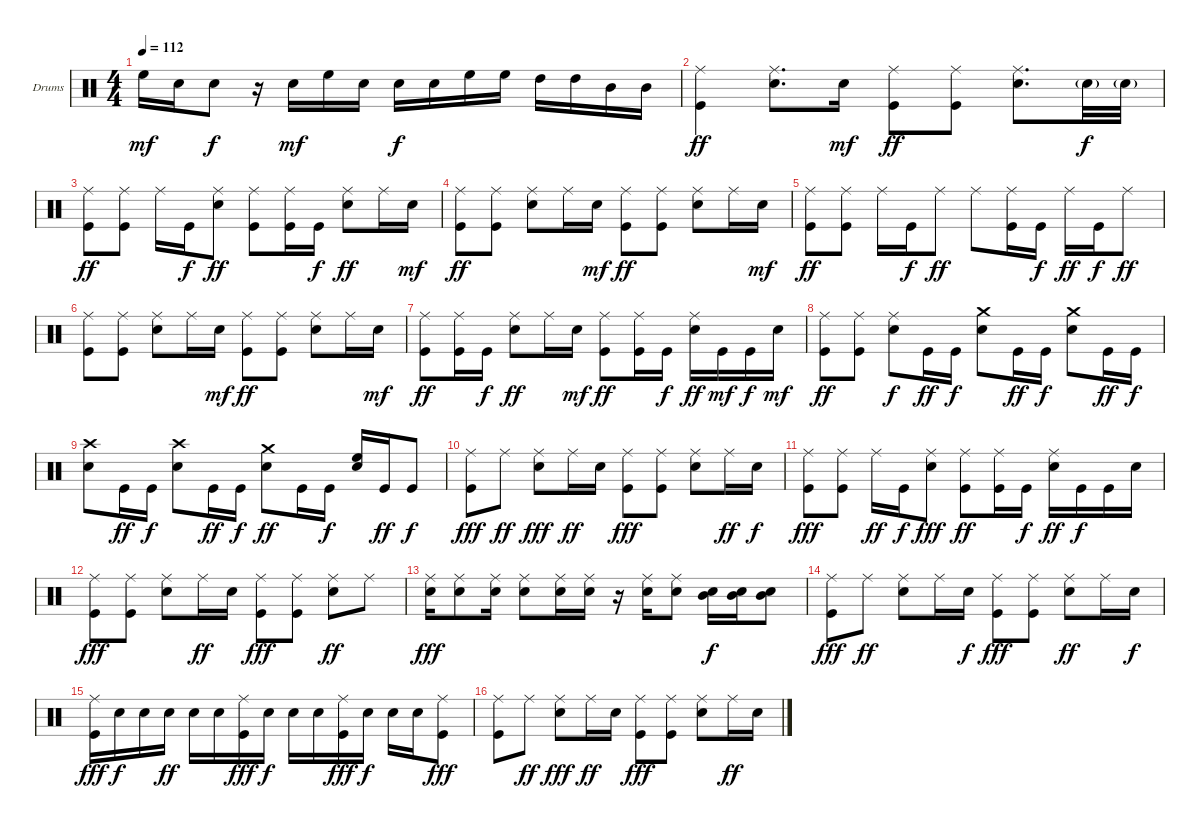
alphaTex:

\bracketExtendMode groupsimilarinstruments
\firstSystemTrackNameOrientation horizontal
\otherSystemsTrackNameOrientation horizontal
\track ("Drumkit" "Drums") {instrument percussion}
\staff {score}
\articulation defaults
\ts (4 4)
\tempo 112
\clef neutral
\ks c "High Floor Tom (hit)".16{dy mf} "Snare (hit) 2".16 "Snare (hit) 2".8{dy f}
r.16 "Snare (hit) 2".16{dy mf} "High Floor Tom (hit)".16 "Snare (hit) 2".16 "Snare (hit) 2".16{dy f} "Snare (hit) 2".16 "High Floor Tom (hit)".16 "High Floor Tom (hit)".16 "High Tom (hit)".16 "High Tom (hit)".16 "Mid Tom (hit)".16 "Mid Tom (hit)".16 |
("Ride (middle)" "Kick (hit)").4{dy ff} ("Ride (middle)" "Snare (hit) 2").8{d} "Snare (hit) 2".16{dy mf} ("Ride (middle)" "Kick (hit)").8{dy ff} ("Ride (middle)" "Kick (hit)").8 ("Ride (middle)" "Snare (hit) 2").8{d} "Snare (hit) 2"{g}.32{dy f} "Snare (hit) 2"{g}.32 |
("Ride (middle)" "Kick (hit)").8{dy ff} ("Ride (middle)" "Kick (hit)").8 "Ride (middle)".16 "Kick (hit)".16{dy f} ("Ride (middle)" "Snare (hit) 2").8{dy ff} ("Ride (middle)" "Kick (hit)").8 ("Ride (middle)" "Kick (hit)").16 "Kick (hit)".16{dy f} ("Ride (middle)" "Snare (hit) 2").8{dy ff} "Ride (middle)".16 "Snare (hit) 2".16{dy mf} |
("Ride (middle)" "Kick (hit)").8{dy ff} ("Ride (middle)" "Kick (hit)").8 ("Ride (middle)" "Snare (hit) 2").8 "Ride (middle)".16 "Snare (hit) 2".16{dy mf} ("Ride (middle)" "Kick (hit)").8{dy ff} ("Ride (middle)" "Kick (hit)").8 ("Ride (middle)" "Snare (hit) 2").8 "Ride (middle)".16 "Snare (hit) 2".16{dy mf} |
("Ride (middle)" "Kick (hit)").8{dy ff} ("Ride (middle)" "Kick (hit)").8 "Ride (middle)".16 "Kick (hit)".16{dy f} "Ride (middle)".8{dy ff} "Ride (middle)".8 ("Ride (middle)" "Kick (hit)").16 "Kick (hit)".16{dy f} "Ride (middle)".16{dy ff} "Kick (hit)".16{dy f} "Ride (middle)".8{dy ff} |
("Ride (middle)" "Kick (hit)").8 ("Ride (middle)" "Kick (hit)").8 ("Ride (middle)" "Snare (hit) 2").8 "Ride (middle)".16 "Snare (hit) 2".16{dy mf} ("Ride (middle)" "Kick (hit)").8{dy ff} ("Ride (middle)" "Kick (hit)").8 ("Ride (middle)" "Snare (hit) 2").8 "Ride (middle)".16 "Snare (hit) 2".16{dy mf} |
("Ride (middle)" "Kick (hit)").8{dy ff} ("Ride (middle)" "Kick (hit)").16 "Kick (hit)".16{dy f} ("Ride (middle)" "Snare (hit) 2").8{dy ff} "Ride (middle)".16 "Snare (hit) 2".16{dy mf} ("Ride (middle)" "Kick (hit)").8{dy ff} ("Ride (middle)" "Kick (hit)").16 "Kick (hit)".16{dy f} ("Ride (middle)" "Snare (hit) 2").16{dy ff} "Kick (hit)".16{dy mf} "Kick (hit)".16{dy f} "Snare (hit) 2".16{dy mf} |
("Ride (middle)" "Kick (hit)").8{dy ff} ("Ride (middle)" "Kick (hit)").8 ("Ride (middle)" "Snare (hit) 2").8{dy f} "Kick (hit)".16{dy ff} "Kick (hit)".16{dy f} ("Crash medium (hit)" "Snare (hit) 2").8 "Kick (hit)".16{dy ff} "Kick (hit)".16{dy f} ("Crash medium (hit)" "Snare (hit) 2").8 "Kick (hit)".16{dy ff} "Kick (hit)".16{dy f} |
("Crash high (hit)" "Snare (hit) 2").8 "Kick (hit)".16{dy ff} "Kick (hit)".16{dy f} ("Crash high (hit)" "Snare (hit) 2").8 "Kick (hit)".16{dy ff} "Kick (hit)".16{dy f} ("Crash medium (hit)" "Snare (hit) 2").8{dy ff} "Kick (hit)".16 "Kick (hit)".16{dy f} ("High Floor Tom (hit)" "Snare (hit) 2").16 "Kick (hit)".16{dy ff} "Kick (hit)".8{dy f} |
("Ride (middle)" "Kick (hit)").8{dy fff} "Ride (middle)".8{dy ff} ("Ride (middle)" "Snare (hit) 2").8{dy fff} "Ride (middle)".16{dy ff} "Snare (hit) 2".16 ("Ride (middle)" "Kick (hit)").8{dy fff} ("Ride (middle)" "Kick (hit)").8 ("Ride (middle)" "Snare (hit) 2").8 "Ride (middle)".16{dy ff} "Snare (hit) 2".16{dy f} |
("Ride (middle)" "Kick (hit)").8{dy fff} ("Ride (middle)" "Kick (hit)").8 "Ride (middle)".16{dy ff} "Kick (hit)".16{dy f} ("Ride (middle)" "Snare (hit) 2").8{dy fff} ("Ride (middle)" "Kick (hit)").8{dy ff} ("Ride (middle)" "Kick (hit)").16 "Kick (hit)".16{dy f} ("Ride (middle)" "Snare (hit) 2").16{dy ff} "Kick (hit)".16{dy f} "Kick (hit)".16 "Snare (hit) 2".16 |
("Ride (middle)" "Kick (hit)").8{dy fff} ("Ride (middle)" "Kick (hit)").8 ("Ride (middle)" "Snare (hit) 2").8 "Ride (middle)".16{dy ff} "Snare (hit) 2".16 ("Ride (middle)" "Kick (hit)").8{dy fff} ("Ride (middle)" "Kick (hit)").8 ("Ride (middle)" "Snare (hit) 2").8{dy ff} "Ride (middle)".8 |
("Ride (middle)" "Snare (hit) 2").16{dy fff} ("Ride (middle)" "Snare (hit) 2").8 ("Ride (middle)" "Snare (hit) 2").16 ("Ride (middle)" "Snare (hit) 2").8 ("Ride (middle)" "Snare (hit) 2").16 ("Ride (middle)" "Snare (hit) 2").16 r.16 ("Ride (middle)" "Snare (hit) 2").16 ("Ride (middle)" "Snare (hit) 2").8 ("Snare (hit) 2" "Mid Tom (hit)").16{dy f} ("Snare (hit) 2" "Mid Tom (hit)").16 ("Snare (hit) 2" "Mid Tom (hit)").8 |
("Ride (middle)" "Kick (hit)").8{dy fff} "Ride (middle)".8{dy ff} ("Ride (middle)" "Snare (hit) 2").8 "Ride (middle)".16 "Snare (hit) 2".16{dy f} ("Ride (middle)" "Kick (hit)").8{dy fff} ("Ride (middle)" "Kick (hit)").8 ("Ride (middle)" "Snare (hit) 2").8{dy ff} "Ride (middle)".16 "Snare (hit) 2".16{dy f} |
("Ride (middle)" "Kick (hit)").16{dy fff} "Snare (hit) 2".16{dy f} "Snare (hit) 2".16 "Snare (hit) 2".16{dy ff} "Snare (hit) 2".16 "Snare (hit) 2".16 ("Ride (middle)" "Kick (hit)").16{dy fff} "Snare (hit) 2".16{dy f} "Snare (hit) 2".16 "Snare (hit) 2".16 ("Ride (middle)" "Kick (hit)").16{dy fff} "Snare (hit) 2".16{dy f} "Snare (hit) 2".16 "Snare (hit) 2".16 ("Ride (middle)" "Kick (hit)").8{dy fff} |
("Ride (middle)" "Kick (hit)").8 "Ride (middle)".8{dy ff} ("Ride (middle)" "Snare (hit) 2").8{dy fff} "Ride (middle)".16{dy ff} "Snare (hit) 2".16 ("Ride (middle)" "Kick (hit)").8{dy fff} ("Ride (middle)" "Kick (hit)").8 ("Ride (middle)" "Snare (hit) 2").8 "Ride (middle)".16{dy ff} "Snare (hit) 2".16
